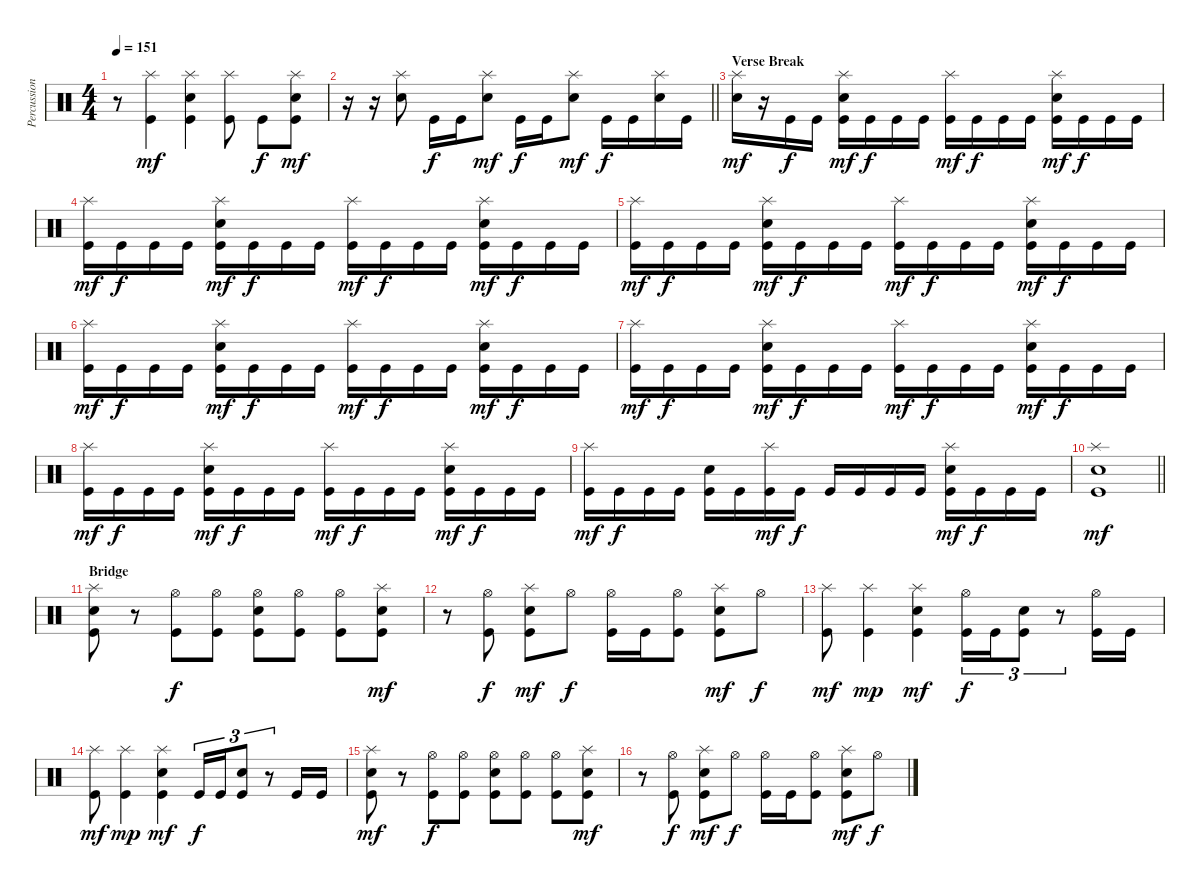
\track ("Percussion" "Percussion") {instrument percussion}
\staff {score}
\articulation defaults
\ts (4 4)
\tempo 151
\clef neutral
\ks c
r.8{dy mf} ("Splash (hit)" "Kick (hit)").4 ("Splash (hit)" "Snare (hit) 2" "Kick (hit)").4 ("Splash (hit)" "Kick (hit)").8 "Kick (hit)".8{dy f} ("Splash (hit)" "Snare (hit) 2" "Kick (hit)").8{dy mf} |
\barLineRight lightlight
r.16 r.16 ("Splash (hit)" "Snare (hit) 2").8 "Kick (hit)".16{dy f} "Kick (hit)".16 ("Splash (hit)" "Snare (hit) 2").8{dy mf} "Kick (hit)".16{dy f} "Kick (hit)".16 ("Splash (hit)" "Snare (hit) 2").8{dy mf} "Kick (hit)".16{dy f} "Kick (hit)".16 ("Splash (hit)" "Snare (hit) 2").16 "Kick (hit)".16 |
\section ("" "Verse Break")
("Splash (hit)" "Snare (hit) 2").16{dy mf} r.16 "Kick (hit)".16{dy f} "Kick (hit)".16 ("Splash (hit)" "Snare (hit) 2" "Kick (hit)").16{dy mf} "Kick (hit)".16{dy f} "Kick (hit)".16 "Kick (hit)".16 ("Splash (hit)" "Kick (hit)").16{dy mf} "Kick (hit)".16{dy f} "Kick (hit)".16 "Kick (hit)".16 ("Splash (hit)" "Snare (hit) 2" "Kick (hit)").16{dy mf} "Kick (hit)".16{dy f} "Kick (hit)".16 "Kick (hit)".16 |
("Splash (hit)" "Kick (hit)").16{dy mf} "Kick (hit)".16{dy f} "Kick (hit)".16 "Kick (hit)".16 ("Splash (hit)" "Snare (hit) 2" "Kick (hit)").16{dy mf} "Kick (hit)".16{dy f} "Kick (hit)".16 "Kick (hit)".16 ("Splash (hit)" "Kick (hit)").16{dy mf} "Kick (hit)".16{dy f} "Kick (hit)".16 "Kick (hit)".16 ("Splash (hit)" "Snare (hit) 2" "Kick (hit)").16{dy mf} "Kick (hit)".16{dy f} "Kick (hit)".16 "Kick (hit)".16 |
("Splash (hit)" "Kick (hit)").16{dy mf} "Kick (hit)".16{dy f} "Kick (hit)".16 "Kick (hit)".16 ("Splash (hit)" "Snare (hit) 2" "Kick (hit)").16{dy mf} "Kick (hit)".16{dy f} "Kick (hit)".16 "Kick (hit)".16 ("Splash (hit)" "Kick (hit)").16{dy mf} "Kick (hit)".16{dy f} "Kick (hit)".16 "Kick (hit)".16 ("Splash (hit)" "Snare (hit) 2" "Kick (hit)").16{dy mf} "Kick (hit)".16{dy f} "Kick (hit)".16 "Kick (hit)".16 |
("Splash (hit)" "Kick (hit)").16{dy mf} "Kick (hit)".16{dy f} "Kick (hit)".16 "Kick (hit)".16 ("Splash (hit)" "Snare (hit) 2" "Kick (hit)").16{dy mf} "Kick (hit)".16{dy f} "Kick (hit)".16 "Kick (hit)".16 ("Splash (hit)" "Kick (hit)").16{dy mf} "Kick (hit)".16{dy f} "Kick (hit)".16 "Kick (hit)".16 ("Splash (hit)" "Snare (hit) 2" "Kick (hit)").16{dy mf} "Kick (hit)".16{dy f} "Kick (hit)".16 "Kick (hit)".16 |
("Splash (hit)" "Kick (hit)").16{dy mf} "Kick (hit)".16{dy f} "Kick (hit)".16 "Kick (hit)".16 ("Splash (hit)" "Snare (hit) 2" "Kick (hit)").16{dy mf} "Kick (hit)".16{dy f} "Kick (hit)".16 "Kick (hit)".16 ("Splash (hit)" "Kick (hit)").16{dy mf} "Kick (hit)".16{dy f} "Kick (hit)".16 "Kick (hit)".16 ("Splash (hit)" "Snare (hit) 2" "Kick (hit)").16{dy mf} "Kick (hit)".16{dy f} "Kick (hit)".16 "Kick (hit)".16 |
("Splash (hit)" "Kick (hit)").16{dy mf} "Kick (hit)".16{dy f} "Kick (hit)".16 "Kick (hit)".16 ("Splash (hit)" "Snare (hit) 2" "Kick (hit)").16{dy mf} "Kick (hit)".16{dy f} "Kick (hit)".16 "Kick (hit)".16 ("Splash (hit)" "Kick (hit)").16{dy mf} "Kick (hit)".16{dy f} "Kick (hit)".16 "Kick (hit)".16 ("Splash (hit)" "Snare (hit) 2" "Kick (hit)").16{dy mf} "Kick (hit)".16{dy f} "Kick (hit)".16 "Kick (hit)".16 |
("Splash (hit)" "Kick (hit)").16{dy mf} "Kick (hit)".16{dy f} "Kick (hit)".16 "Kick (hit)".16 ("Snare (hit) 2" "Kick (hit)").16 "Kick (hit)".16 ("Splash (hit)" "Kick (hit)").16{dy mf} "Kick (hit)".16{dy f} "Kick (hit)".16 "Kick (hit)".16 "Kick (hit)".16 "Kick (hit)".16 ("Splash (hit)" "Snare (hit) 2" "Kick (hit)").16{dy mf} "Kick (hit)".16{dy f} "Kick (hit)".16 "Kick (hit)".16 |
\barLineRight lightlight
("Splash (hit)" "Snare (hit) 2" "Kick (hit)").1{dy mf} |
\section ("" "Bridge")
("Splash (hit)" "Snare (hit) 2" "Kick (hit)").8 r.8 ("Hi-Hat (open)" "Kick (hit)").8{dy f} ("Hi-Hat (open)" "Kick (hit)").8 ("Hi-Hat (open)" "Snare (hit) 2" "Kick (hit)").8 ("Hi-Hat (open)" "Kick (hit)").8 ("Hi-Hat (open)" "Kick (hit)").8 ("Splash (hit)" "Snare (hit) 2" "Kick (hit)").8{dy mf} |
r.8 ("Hi-Hat (open)" "Kick (hit)").8{dy f} ("Splash (hit)" "Snare (hit) 2" "Kick (hit)").8{dy mf} "Hi-Hat (open)".8{dy f} ("Hi-Hat (open)" "Kick (hit)").16 "Kick (hit)".16 ("Hi-Hat (open)" "Kick (hit)").8 ("Splash (hit)" "Snare (hit) 2" "Kick (hit)").8{dy mf} "Hi-Hat (open)".8{dy f} |
("Splash (hit)" "Kick (hit)").8{dy mf} ("Splash (hit)" "Kick (hit)").4{dy mp} ("Splash (hit)" "Snare (hit) 2" "Kick (hit)").4{dy mf} ("Hi-Hat (open)" "Kick (hit)").16{tu (3 2) dy f} "Kick (hit)".16{tu (3 2)} ("Snare (hit) 2" "Kick (hit)").8{tu (3 2)} r.8{tu (3 2)} ("Hi-Hat (open)" "Kick (hit)").16 "Kick (hit)".16 |
("Splash (hit)" "Kick (hit)").8{dy mf} ("Splash (hit)" "Kick (hit)").4{dy mp} ("Splash (hit)" "Snare (hit) 2" "Kick (hit)").4{dy mf} "Kick (hit)".16{tu (3 2) dy f} "Kick (hit)".16{tu (3 2)} ("Snare (hit) 2" "Kick (hit)").8{tu (3 2)} r.8{tu (3 2)} "Kick (hit)".16 "Kick (hit)".16 |
("Splash (hit)" "Snare (hit) 2" "Kick (hit)").8{dy mf} r.8 ("Hi-Hat (open)" "Kick (hit)").8{dy f} ("Hi-Hat (open)" "Kick (hit)").8 ("Hi-Hat (open)" "Snare (hit) 2" "Kick (hit)").8 ("Hi-Hat (open)" "Kick (hit)").8 ("Hi-Hat (open)" "Kick (hit)").8 ("Splash (hit)" "Snare (hit) 2" "Kick (hit)").8{dy mf} |
r.8 ("Hi-Hat (open)" "Kick (hit)").8{dy f} ("Splash (hit)" "Snare (hit) 2" "Kick (hit)").8{dy mf} "Hi-Hat (open)".8{dy f} ("Hi-Hat (open)" "Kick (hit)").16 "Kick (hit)".16 ("Hi-Hat (open)" "Kick (hit)").8 ("Splash (hit)" "Snare (hit) 2" "Kick (hit)").8{dy mf} "Hi-Hat (open)".8{dy f}
